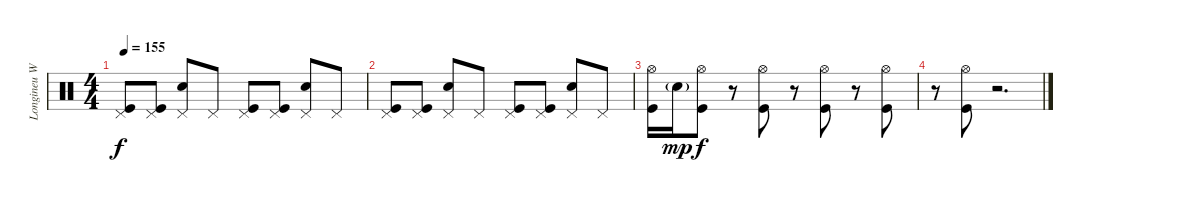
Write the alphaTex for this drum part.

\track ("Longineu W. Parsons III - Drums" "Longineu W") {instrument percussion}
\staff {score}
\articulation defaults
\ts (4 4)
\tempo 155
\clef neutral
\ks c
("Pedal Hi-Hat (hit)" "Kick (hit)").8{dy f} ("Pedal Hi-Hat (hit)" "Kick (hit)").8 ("Pedal Hi-Hat (hit)" "Snare (hit) 2").8 "Pedal Hi-Hat (hit)".8 ("Pedal Hi-Hat (hit)" "Kick (hit)").8 ("Pedal Hi-Hat (hit)" "Kick (hit)").8 ("Pedal Hi-Hat (hit)" "Snare (hit) 2").8 "Pedal Hi-Hat (hit)".8 |
("Pedal Hi-Hat (hit)" "Kick (hit)").8 ("Pedal Hi-Hat (hit)" "Kick (hit)").8 ("Pedal Hi-Hat (hit)" "Snare (hit) 2").8 "Pedal Hi-Hat (hit)".8 ("Pedal Hi-Hat (hit)" "Kick (hit)").8 ("Pedal Hi-Hat (hit)" "Kick (hit)").8 ("Pedal Hi-Hat (hit)" "Snare (hit) 2").8 "Pedal Hi-Hat (hit)".8 |
("Hi-Hat (open)" "Kick (hit)").16 "Snare (hit) 2"{g}.16{dy mp} ("Hi-Hat (open)" "Kick (hit)").8{dy f} r.8 ("Hi-Hat (open)" "Kick (hit)").8 r.8 ("Hi-Hat (open)" "Kick (hit)").8 r.8 ("Hi-Hat (open)" "Kick (hit)").8 |
r.8 ("Hi-Hat (open)" "Kick (hit)").8 r.2{d}
